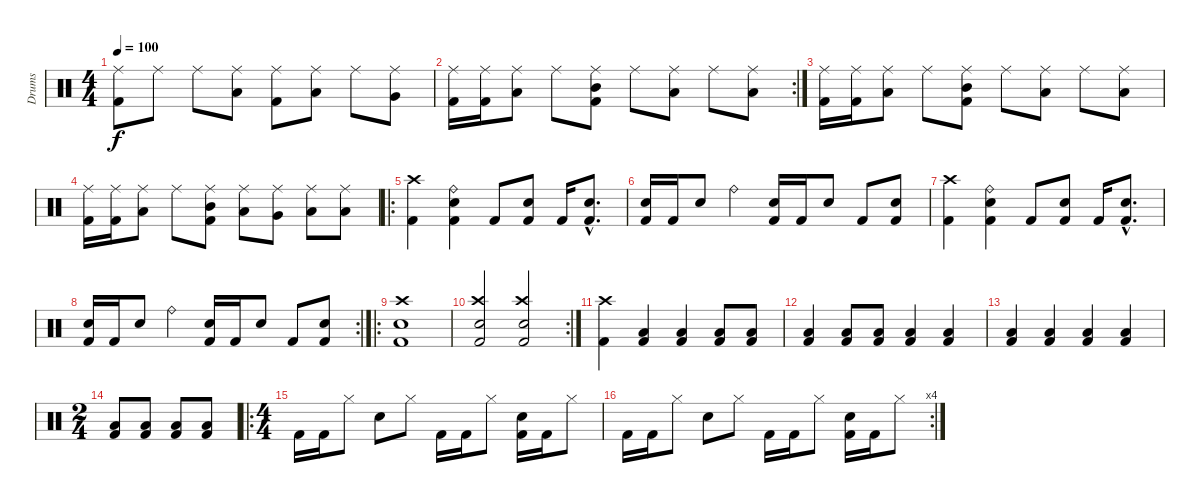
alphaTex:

\track ("Drums" "Drums") {instrument percussion}
\staff {score}
\articulation defaults
\ts (4 4)
\tempo 100
\clef neutral
\ks c
("Ride (middle)" "Kick (hit) 2").8{dy f} "Ride (middle)".8 "Ride (middle)".8 ("Low Tom (hit)" "Ride (middle)").8 ("Ride (middle)" "Kick (hit) 2").8 ("Low Floor Tom (hit)" "Ride (middle)").8 "Ride (middle)".8 ("Very Low Tom (hit)" "Ride (middle)").8 |
\rc 2
("Ride (middle)" "Kick (hit) 2").16 ("Ride (middle)" "Kick (hit) 2").16 ("Low Tom (hit)" "Ride (middle)").8 "Ride (middle)".8 ("Mid Tom (hit)" "Ride (middle)" "Kick (hit) 2").8 "Ride (middle)".8 ("Low Tom (hit)" "Ride (middle)").8 "Ride (middle)".8 ("Low Floor Tom (hit)" "Ride (middle)").8 |
("Ride (middle)" "Kick (hit) 2").16 ("Ride (middle)" "Kick (hit) 2").16 ("Low Tom (hit)" "Ride (middle)").8 "Ride (middle)".8 ("Mid Tom (hit)" "Ride (middle)" "Kick (hit) 2").8 "Ride (middle)".8 ("Low Tom (hit)" "Ride (middle)").8 "Ride (middle)".8 ("Low Floor Tom (hit)" "Ride (middle)").8 |
("Ride (middle)" "Kick (hit) 2").16 ("Ride (middle)" "Kick (hit) 2").16 ("Low Tom (hit)" "Ride (middle)").8 "Ride (middle)".8 ("Mid Tom (hit)" "Ride (middle)" "Kick (hit) 2").8 ("Low Tom (hit)" "Ride (middle)").8 ("Very Low Tom (hit)" "Ride (middle)").8 ("Low Floor Tom (hit)" "Ride (middle)").8 ("Low Tom (hit)" "Ride (middle)").8 |
\ro
("Crash high (hit)" "Kick (hit) 2").4 ("Electric Snare (hit)" "Ride (bell)" "Kick (hit) 2").4 "Kick (hit) 2".8 ("Electric Snare (hit)" "Kick (hit) 2").8 "Kick (hit) 2".16 ("Electric Snare (hit)"{hac} "Kick (hit) 2"{hac}).8{d} |
("Electric Snare (hit)" "Kick (hit) 2").16 "Kick (hit) 2".16 "Electric Snare (hit)".8 "Ride (bell)".4 ("Electric Snare (hit)" "Kick (hit) 2").16 "Kick (hit) 2".16 "Electric Snare (hit)".8 "Kick (hit) 2".8 ("Electric Snare (hit)" "Kick (hit) 2").8 |
("Crash high (hit)" "Kick (hit) 2").4 ("Electric Snare (hit)" "Ride (bell)" "Kick (hit) 2").4 "Kick (hit) 2".8 ("Electric Snare (hit)" "Kick (hit) 2").8 "Kick (hit) 2".16 ("Electric Snare (hit)"{hac} "Kick (hit) 2"{hac}).8{d} |
\rc 2
("Electric Snare (hit)" "Kick (hit) 2").16 "Kick (hit) 2".16 "Electric Snare (hit)".8 "Ride (bell)".4 ("Electric Snare (hit)" "Kick (hit) 2").16 "Kick (hit) 2".16 "Electric Snare (hit)".8 "Kick (hit) 2".8 ("Electric Snare (hit)" "Kick (hit) 2").8 |
\ro
("Crash high (hit)" "Electric Snare (hit)" "Kick (hit) 2").1 |
\rc 2
("Crash high (hit)" "Electric Snare (hit)" "Kick (hit) 2").2 ("Crash high (hit)" "Electric Snare (hit)" "Kick (hit) 2").2 |
("Crash high (hit)" "Kick (hit) 2").4 ("Low Tom (hit)" "Kick (hit) 2").4 ("Low Tom (hit)" "Kick (hit) 2").4 ("Low Tom (hit)" "Kick (hit) 2").8 ("Low Tom (hit)" "Kick (hit) 2").8 |
("Low Tom (hit)" "Kick (hit) 2").4 ("Low Tom (hit)" "Kick (hit) 2").8 ("Low Tom (hit)" "Kick (hit) 2").8 ("Low Tom (hit)" "Kick (hit) 2").4 ("Low Tom (hit)" "Kick (hit) 2").4 |
("Low Tom (hit)" "Kick (hit) 2").4 ("Low Tom (hit)" "Kick (hit) 2").4 ("Low Tom (hit)" "Kick (hit) 2").4 ("Low Tom (hit)" "Kick (hit) 2").4 |
\ts (2 4)
("Low Tom (hit)" "Kick (hit) 2").8 ("Low Tom (hit)" "Kick (hit) 2").8 ("Low Tom (hit)" "Kick (hit) 2").8 ("Low Tom (hit)" "Kick (hit) 2").8 |
\ro
\ts (4 4)
"Kick (hit) 2".16 "Kick (hit) 2".16 "Hi-Hat (closed)".8 "Electric Snare (hit)".8 "Hi-Hat (closed)".8 "Kick (hit) 2".16 "Kick (hit) 2".16 "Hi-Hat (closed)".8 ("Electric Snare (hit)" "Kick (hit) 2").16 "Kick (hit) 2".16 "Hi-Hat (closed)".8 |
\rc 4 "Kick (hit) 2".16 "Kick (hit) 2".16 "Hi-Hat (closed)".8 "Electric Snare (hit)".8 "Hi-Hat (closed)".8 "Kick (hit) 2".16 "Kick (hit) 2".16 "Hi-Hat (closed)".8
("Electric Snare (hit)" "Kick (hit) 2").16 "Kick (hit) 2".16 "Hi-Hat (closed)".8
